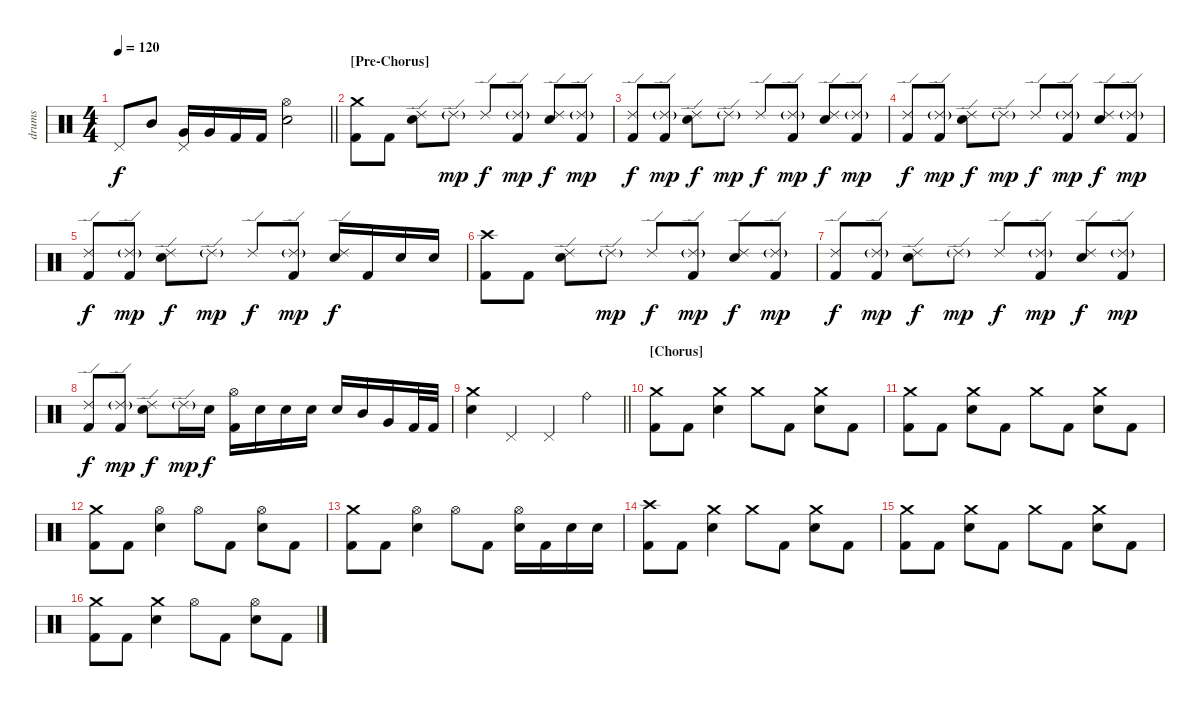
\track ("drums" "drums") {instrument percussion}
\staff {score}
\articulation defaults
\ts (4 4)
\tempo 120
\clef neutral
\barLineRight lightlight
\ks c "Pedal Hi-Hat (hit)".8{dy f} "Mid Tom (hit)".8
("Pedal Hi-Hat (hit)" "Very Low Tom (hit)").16 "Very Low Tom (hit)".16 "Kick (hit) 2".16 "Kick (hit) 2".16 ("Hi-Hat (open)" "Electric Snare (hit)").2 |
\section ("" "[Pre-Chorus]")
("Crash medium (hit)" "Kick (hit) 2").8 "Kick (hit) 2".8 ("Ride (edge) 2" "Electric Snare (hit)").8 "Ride (edge) 2"{g}.8{dy mp} "Ride (edge) 2".8{dy f} ("Ride (edge) 2"{g} "Kick (hit) 2").8{dy mp} ("Ride (edge) 2" "Electric Snare (hit)").8{dy f} ("Ride (edge) 2"{g} "Kick (hit) 2").8{dy mp} |
("Ride (edge) 2" "Kick (hit) 2").8{dy f} ("Ride (edge) 2"{g} "Kick (hit) 2").8{dy mp} ("Ride (edge) 2" "Electric Snare (hit)").8{dy f} "Ride (edge) 2"{g}.8{dy mp} "Ride (edge) 2".8{dy f} ("Ride (edge) 2"{g} "Kick (hit) 2").8{dy mp} ("Ride (edge) 2" "Electric Snare (hit)").8{dy f} ("Ride (edge) 2"{g} "Kick (hit) 2").8{dy mp} |
("Ride (edge) 2" "Kick (hit) 2").8{dy f} ("Ride (edge) 2"{g} "Kick (hit) 2").8{dy mp} ("Ride (edge) 2" "Electric Snare (hit)").8{dy f} "Ride (edge) 2"{g}.8{dy mp} "Ride (edge) 2".8{dy f} ("Ride (edge) 2"{g} "Kick (hit) 2").8{dy mp} ("Ride (edge) 2" "Electric Snare (hit)").8{dy f} ("Ride (edge) 2"{g} "Kick (hit) 2").8{dy mp} |
("Ride (edge) 2" "Kick (hit) 2").8{dy f} ("Ride (edge) 2"{g} "Kick (hit) 2").8{dy mp} ("Ride (edge) 2" "Electric Snare (hit)").8{dy f} "Ride (edge) 2"{g}.8{dy mp} "Ride (edge) 2".8{dy f} ("Ride (edge) 2"{g} "Kick (hit) 2").8{dy mp} ("Ride (edge) 2" "Electric Snare (hit)").16{dy f} "Kick (hit) 2".16 "Electric Snare (hit)".16 "Electric Snare (hit)".16 |
("Crash high (hit)" "Kick (hit) 2").8 "Kick (hit) 2".8 ("Ride (edge) 2" "Electric Snare (hit)").8 "Ride (edge) 2"{g}.8{dy mp} "Ride (edge) 2".8{dy f} ("Ride (edge) 2"{g} "Kick (hit) 2").8{dy mp} ("Ride (edge) 2" "Electric Snare (hit)").8{dy f} ("Ride (edge) 2"{g} "Kick (hit) 2").8{dy mp} |
("Ride (edge) 2" "Kick (hit) 2").8{dy f} ("Ride (edge) 2"{g} "Kick (hit) 2").8{dy mp} ("Ride (edge) 2" "Electric Snare (hit)").8{dy f} "Ride (edge) 2"{g}.8{dy mp} "Ride (edge) 2".8{dy f} ("Ride (edge) 2"{g} "Kick (hit) 2").8{dy mp} ("Ride (edge) 2" "Electric Snare (hit)").8{dy f} ("Ride (edge) 2"{g} "Kick (hit) 2").8{dy mp} |
("Ride (edge) 2" "Kick (hit) 2").8{dy f} ("Ride (edge) 2"{g} "Kick (hit) 2").8{dy mp} ("Ride (edge) 2" "Electric Snare (hit)").8{dy f} "Ride (edge) 2"{g}.16{dy mp} "Electric Snare (hit)".16{dy f} ("Hi-Hat (open)" "Kick (hit) 2").16 "Electric Snare (hit)".16 "Electric Snare (hit)".16 "Electric Snare (hit)".16 "Electric Snare (hit)".16 "Mid Tom (hit)".16 "Very Low Tom (hit)".16 "Kick (hit) 2".32 "Kick (hit) 2".32 |
\barLineRight lightlight
("Crash medium (hit)" "Electric Snare (hit)").4 "Pedal Hi-Hat (hit)".4 "Pedal Hi-Hat (hit)".4 "Ride (bell)".4 |
\section ("" "[Chorus]")
("Crash medium (hit)" "Kick (hit) 2").8 "Kick (hit) 2".8 ("Crash medium (hit)" "Electric Snare (hit)").4 "Crash medium (hit)".8 "Kick (hit) 2".8 ("Crash medium (hit)" "Electric Snare (hit)").8 "Kick (hit) 2".8 |
("Crash medium (hit)" "Kick (hit) 2").8 "Kick (hit) 2".8 ("Crash medium (hit)" "Electric Snare (hit)").8 "Kick (hit) 2".8 "Crash medium (hit)".8 "Kick (hit) 2".8 ("Crash medium (hit)" "Electric Snare (hit)").8 "Kick (hit) 2".8 |
("Crash medium (hit)" "Kick (hit) 2").8 "Kick (hit) 2".8 ("Hi-Hat (open)" "Electric Snare (hit)").4 "Hi-Hat (open)".8 "Kick (hit) 2".8 ("Hi-Hat (open)" "Electric Snare (hit)").8 "Kick (hit) 2".8 |
("Crash medium (hit)" "Kick (hit) 2").8 "Kick (hit) 2".8 ("Hi-Hat (open)" "Electric Snare (hit)").4 "Hi-Hat (open)".8 "Kick (hit) 2".8 ("Hi-Hat (open)" "Electric Snare (hit)").16 "Kick (hit) 2".16 "Electric Snare (hit)".16 "Electric Snare (hit)".16 |
("Crash high (hit)" "Kick (hit) 2").8 "Kick (hit) 2".8 ("Crash medium (hit)" "Electric Snare (hit)").4 "Crash medium (hit)".8 "Kick (hit) 2".8 ("Crash medium (hit)" "Electric Snare (hit)").8 "Kick (hit) 2".8 |
("Crash medium (hit)" "Kick (hit) 2").8 "Kick (hit) 2".8 ("Crash medium (hit)" "Electric Snare (hit)").8 "Kick (hit) 2".8 "Crash medium (hit)".8 "Kick (hit) 2".8 ("Crash medium (hit)" "Electric Snare (hit)").8 "Kick (hit) 2".8 |
("Crash medium (hit)" "Kick (hit) 2").8 "Kick (hit) 2".8 ("Crash medium (hit)" "Electric Snare (hit)").4 "Hi-Hat (open)".8 "Kick (hit) 2".8 ("Hi-Hat (open)" "Electric Snare (hit)").8 "Kick (hit) 2".8
